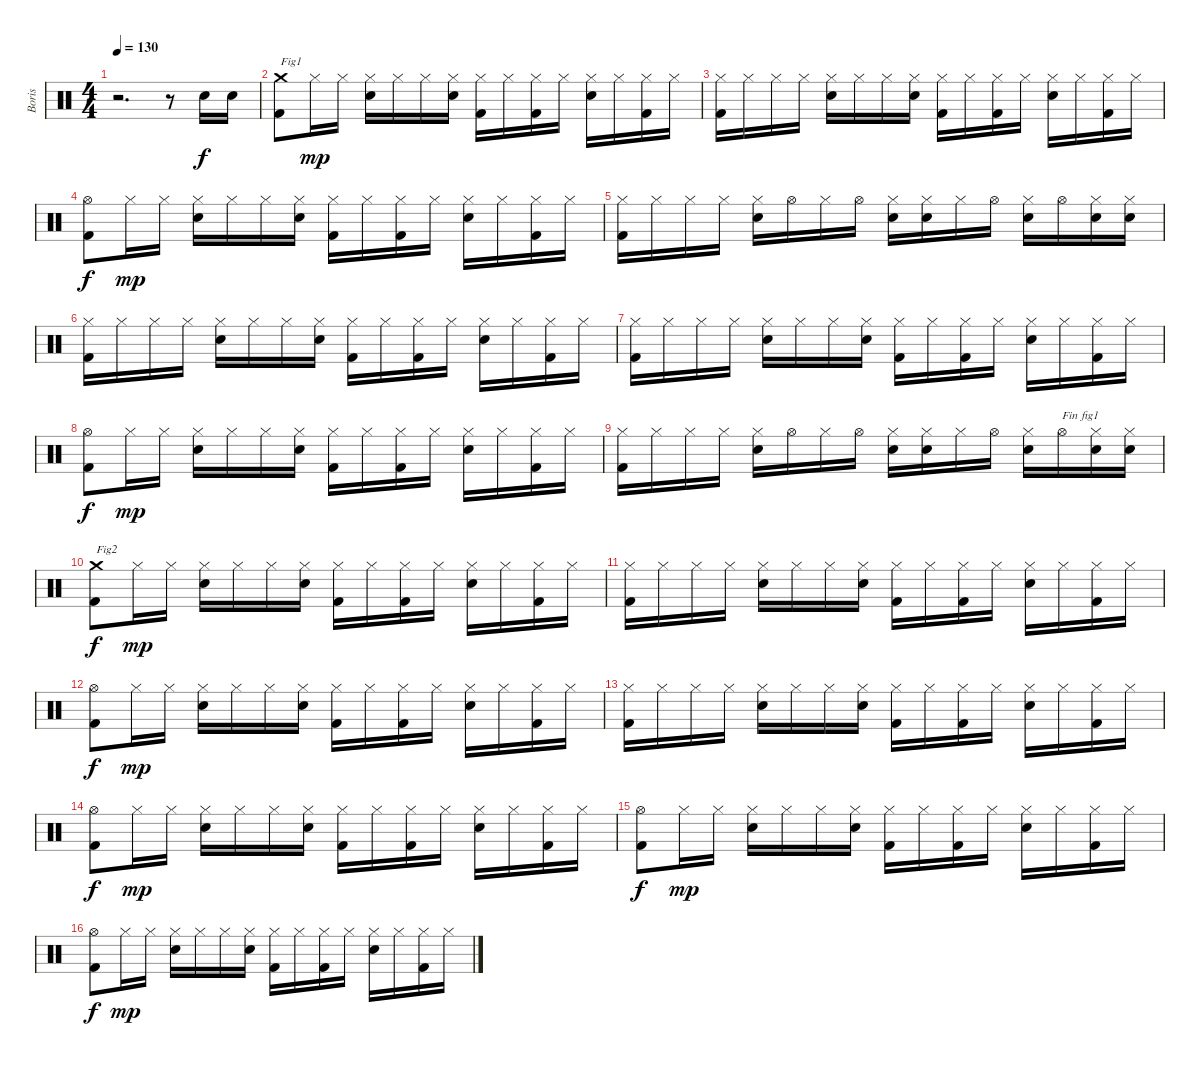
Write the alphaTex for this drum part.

\track ("Boris" "Boris") {instrument percussion}
\staff {score}
\articulation defaults
\ts (4 4)
\tempo 130
\clef neutral
\ks c
r.2{d dy f} r.8 "Electric Snare (hit)".16 "Electric Snare (hit)".16 |
("Kick (hit) 2" "Crash medium (hit)").8{txt "Fig1"} "Hi-Hat (closed)".16{dy mp} "Hi-Hat (closed)".16 ("Electric Snare (hit)" "Hi-Hat (closed)").16 "Hi-Hat (closed)".16 "Hi-Hat (closed)".16 ("Electric Snare (hit)" "Hi-Hat (closed)").16 ("Kick (hit) 2" "Hi-Hat (closed)").16 "Hi-Hat (closed)".16 ("Kick (hit) 2" "Hi-Hat (closed)").16 "Hi-Hat (closed)".16 ("Electric Snare (hit)" "Hi-Hat (closed)").16 "Hi-Hat (closed)".16 ("Kick (hit) 2" "Hi-Hat (closed)").16 "Hi-Hat (closed)".16 |
("Kick (hit) 2" "Hi-Hat (closed)").16 "Hi-Hat (closed)".16 "Hi-Hat (closed)".16 "Hi-Hat (closed)".16 ("Electric Snare (hit)" "Hi-Hat (closed)").16 "Hi-Hat (closed)".16 "Hi-Hat (closed)".16 ("Electric Snare (hit)" "Hi-Hat (closed)").16 ("Kick (hit) 2" "Hi-Hat (closed)").16 "Hi-Hat (closed)".16 ("Kick (hit) 2" "Hi-Hat (closed)").16 "Hi-Hat (closed)".16 ("Electric Snare (hit)" "Hi-Hat (closed)").16 "Hi-Hat (closed)".16 ("Kick (hit) 2" "Hi-Hat (closed)").16 "Hi-Hat (closed)".16 |
("Kick (hit) 2" "Hi-Hat (open)").8{dy f} "Hi-Hat (closed)".16{dy mp} "Hi-Hat (closed)".16 ("Electric Snare (hit)" "Hi-Hat (closed)").16 "Hi-Hat (closed)".16 "Hi-Hat (closed)".16 ("Electric Snare (hit)" "Hi-Hat (closed)").16 ("Kick (hit) 2" "Hi-Hat (closed)").16 "Hi-Hat (closed)".16 ("Kick (hit) 2" "Hi-Hat (closed)").16 "Hi-Hat (closed)".16 ("Electric Snare (hit)" "Hi-Hat (closed)").16 "Hi-Hat (closed)".16 ("Kick (hit) 2" "Hi-Hat (closed)").16 "Hi-Hat (closed)".16 |
("Kick (hit) 2" "Hi-Hat (closed)").16 "Hi-Hat (closed)".16 "Hi-Hat (closed)".16 "Hi-Hat (closed)".16 ("Electric Snare (hit)" "Hi-Hat (closed)").16 "Hi-Hat (open)".16 "Hi-Hat (closed)".16 "Hi-Hat (open)".16 ("Electric Snare (hit)" "Hi-Hat (closed)").16 ("Electric Snare (hit)" "Hi-Hat (closed)").16 "Hi-Hat (closed)".16 "Hi-Hat (open)".16 ("Electric Snare (hit)" "Hi-Hat (closed)").16 "Hi-Hat (open)".16 ("Electric Snare (hit)" "Hi-Hat (closed)").16 ("Electric Snare (hit)" "Hi-Hat (closed)").16 |
("Kick (hit) 2" "Hi-Hat (closed)").16 "Hi-Hat (closed)".16 "Hi-Hat (closed)".16 "Hi-Hat (closed)".16 ("Electric Snare (hit)" "Hi-Hat (closed)").16 "Hi-Hat (closed)".16 "Hi-Hat (closed)".16 ("Electric Snare (hit)" "Hi-Hat (closed)").16 ("Kick (hit) 2" "Hi-Hat (closed)").16 "Hi-Hat (closed)".16 ("Kick (hit) 2" "Hi-Hat (closed)").16 "Hi-Hat (closed)".16 ("Electric Snare (hit)" "Hi-Hat (closed)").16 "Hi-Hat (closed)".16 ("Kick (hit) 2" "Hi-Hat (closed)").16 "Hi-Hat (closed)".16 |
("Kick (hit) 2" "Hi-Hat (closed)").16 "Hi-Hat (closed)".16 "Hi-Hat (closed)".16 "Hi-Hat (closed)".16 ("Electric Snare (hit)" "Hi-Hat (closed)").16 "Hi-Hat (closed)".16 "Hi-Hat (closed)".16 ("Electric Snare (hit)" "Hi-Hat (closed)").16 ("Kick (hit) 2" "Hi-Hat (closed)").16 "Hi-Hat (closed)".16 ("Kick (hit) 2" "Hi-Hat (closed)").16 "Hi-Hat (closed)".16 ("Electric Snare (hit)" "Hi-Hat (closed)").16 "Hi-Hat (closed)".16 ("Kick (hit) 2" "Hi-Hat (closed)").16 "Hi-Hat (closed)".16 |
("Kick (hit) 2" "Hi-Hat (open)").8{dy f} "Hi-Hat (closed)".16{dy mp} "Hi-Hat (closed)".16 ("Electric Snare (hit)" "Hi-Hat (closed)").16 "Hi-Hat (closed)".16 "Hi-Hat (closed)".16 ("Electric Snare (hit)" "Hi-Hat (closed)").16 ("Kick (hit) 2" "Hi-Hat (closed)").16 "Hi-Hat (closed)".16 ("Kick (hit) 2" "Hi-Hat (closed)").16 "Hi-Hat (closed)".16 ("Electric Snare (hit)" "Hi-Hat (closed)").16 "Hi-Hat (closed)".16 ("Kick (hit) 2" "Hi-Hat (closed)").16 "Hi-Hat (closed)".16 |
("Kick (hit) 2" "Hi-Hat (closed)").16 "Hi-Hat (closed)".16 "Hi-Hat (closed)".16 "Hi-Hat (closed)".16 ("Electric Snare (hit)" "Hi-Hat (closed)").16 "Hi-Hat (open)".16 "Hi-Hat (closed)".16 "Hi-Hat (open)".16 ("Electric Snare (hit)" "Hi-Hat (closed)").16 ("Electric Snare (hit)" "Hi-Hat (closed)").16 "Hi-Hat (closed)".16 "Hi-Hat (open)".16 ("Electric Snare (hit)" "Hi-Hat (closed)").16 "Hi-Hat (open)".16{txt "Fin fig1"} ("Electric Snare (hit)" "Hi-Hat (closed)").16 ("Electric Snare (hit)" "Hi-Hat (closed)").16 |
("Kick (hit) 2" "Crash medium (hit)").8{txt "Fig2" dy f} "Hi-Hat (closed)".16{dy mp} "Hi-Hat (closed)".16 ("Electric Snare (hit)" "Hi-Hat (closed)").16 "Hi-Hat (closed)".16 "Hi-Hat (closed)".16 ("Electric Snare (hit)" "Hi-Hat (closed)").16 ("Kick (hit) 2" "Hi-Hat (closed)").16 "Hi-Hat (closed)".16 ("Kick (hit) 2" "Hi-Hat (closed)").16 "Hi-Hat (closed)".16 ("Electric Snare (hit)" "Hi-Hat (closed)").16 "Hi-Hat (closed)".16 ("Kick (hit) 2" "Hi-Hat (closed)").16 "Hi-Hat (closed)".16 |
("Kick (hit) 2" "Hi-Hat (closed)").16 "Hi-Hat (closed)".16 "Hi-Hat (closed)".16 "Hi-Hat (closed)".16 ("Electric Snare (hit)" "Hi-Hat (closed)").16 "Hi-Hat (closed)".16 "Hi-Hat (closed)".16 ("Electric Snare (hit)" "Hi-Hat (closed)").16 ("Kick (hit) 2" "Hi-Hat (closed)").16 "Hi-Hat (closed)".16 ("Kick (hit) 2" "Hi-Hat (closed)").16 "Hi-Hat (closed)".16 ("Electric Snare (hit)" "Hi-Hat (closed)").16 "Hi-Hat (closed)".16 ("Kick (hit) 2" "Hi-Hat (closed)").16 "Hi-Hat (closed)".16 |
("Kick (hit) 2" "Hi-Hat (open)").8{dy f} "Hi-Hat (closed)".16{dy mp} "Hi-Hat (closed)".16 ("Electric Snare (hit)" "Hi-Hat (closed)").16 "Hi-Hat (closed)".16 "Hi-Hat (closed)".16 ("Electric Snare (hit)" "Hi-Hat (closed)").16 ("Kick (hit) 2" "Hi-Hat (closed)").16 "Hi-Hat (closed)".16 ("Kick (hit) 2" "Hi-Hat (closed)").16 "Hi-Hat (closed)".16 ("Electric Snare (hit)" "Hi-Hat (closed)").16 "Hi-Hat (closed)".16 ("Kick (hit) 2" "Hi-Hat (closed)").16 "Hi-Hat (closed)".16 |
("Kick (hit) 2" "Hi-Hat (closed)").16 "Hi-Hat (closed)".16 "Hi-Hat (closed)".16 "Hi-Hat (closed)".16 ("Electric Snare (hit)" "Hi-Hat (closed)").16 "Hi-Hat (closed)".16 "Hi-Hat (closed)".16 ("Electric Snare (hit)" "Hi-Hat (closed)").16 ("Kick (hit) 2" "Hi-Hat (closed)").16 "Hi-Hat (closed)".16 ("Kick (hit) 2" "Hi-Hat (closed)").16 "Hi-Hat (closed)".16 ("Electric Snare (hit)" "Hi-Hat (closed)").16 "Hi-Hat (closed)".16 ("Kick (hit) 2" "Hi-Hat (closed)").16 "Hi-Hat (closed)".16 |
("Kick (hit) 2" "Hi-Hat (open)").8{dy f} "Hi-Hat (closed)".16{dy mp} "Hi-Hat (closed)".16 ("Electric Snare (hit)" "Hi-Hat (closed)").16 "Hi-Hat (closed)".16 "Hi-Hat (closed)".16 ("Electric Snare (hit)" "Hi-Hat (closed)").16 ("Kick (hit) 2" "Hi-Hat (closed)").16 "Hi-Hat (closed)".16 ("Kick (hit) 2" "Hi-Hat (closed)").16 "Hi-Hat (closed)".16 ("Electric Snare (hit)" "Hi-Hat (closed)").16 "Hi-Hat (closed)".16 ("Kick (hit) 2" "Hi-Hat (closed)").16 "Hi-Hat (closed)".16 |
("Kick (hit) 2" "Hi-Hat (open)").8{dy f} "Hi-Hat (closed)".16{dy mp} "Hi-Hat (closed)".16 ("Electric Snare (hit)" "Hi-Hat (closed)").16 "Hi-Hat (closed)".16 "Hi-Hat (closed)".16 ("Electric Snare (hit)" "Hi-Hat (closed)").16 ("Kick (hit) 2" "Hi-Hat (closed)").16 "Hi-Hat (closed)".16 ("Kick (hit) 2" "Hi-Hat (closed)").16 "Hi-Hat (closed)".16 ("Electric Snare (hit)" "Hi-Hat (closed)").16 "Hi-Hat (closed)".16 ("Kick (hit) 2" "Hi-Hat (closed)").16 "Hi-Hat (closed)".16 |
("Kick (hit) 2" "Hi-Hat (open)").8{dy f} "Hi-Hat (closed)".16{dy mp} "Hi-Hat (closed)".16 ("Electric Snare (hit)" "Hi-Hat (closed)").16 "Hi-Hat (closed)".16 "Hi-Hat (closed)".16 ("Electric Snare (hit)" "Hi-Hat (closed)").16 ("Kick (hit) 2" "Hi-Hat (closed)").16 "Hi-Hat (closed)".16 ("Kick (hit) 2" "Hi-Hat (closed)").16 "Hi-Hat (closed)".16 ("Electric Snare (hit)" "Hi-Hat (closed)").16 "Hi-Hat (closed)".16 ("Kick (hit) 2" "Hi-Hat (closed)").16 "Hi-Hat (closed)".16
